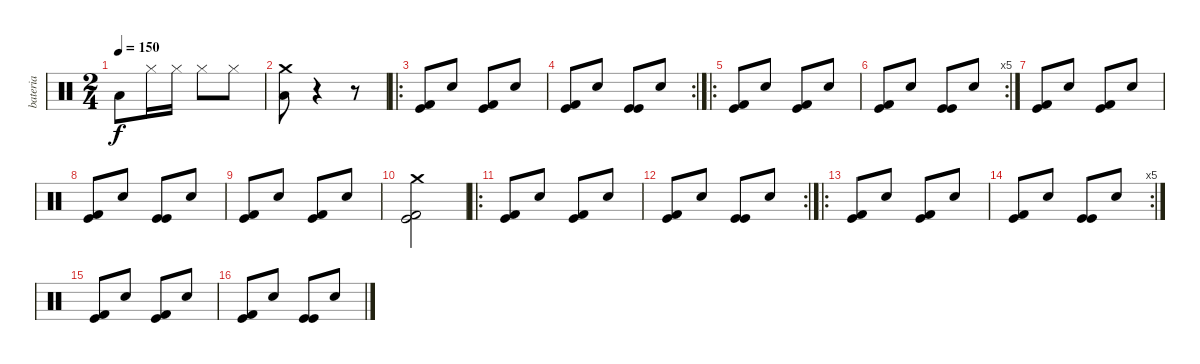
\track ("bateria" "bateria") {instrument percussion}
\staff {score}
\articulation defaults
\ts (2 4)
\tempo 150
\clef neutral
\ks c "Low Tom (hit)".8{dy f} "Hi-Hat (closed)".16 "Hi-Hat (closed)".16 "Hi-Hat (closed)".8 "Hi-Hat (closed)".8
|
("Crash medium (hit)" "Low Tom (hit)").8 r.4 r.8 |
\ro
("Kick (hit) 2" "Kick (hit)").8 "Electric Snare (hit)".8 ("Kick (hit) 2" "Kick (hit)").8 "Electric Snare (hit)".8 |
\rc 2
("Kick (hit) 2" "Kick (hit)").8 "Electric Snare (hit)".8 ("Kick (hit)" "Kick (hit)").8 "Electric Snare (hit)".8 |
\ro
("Kick (hit) 2" "Kick (hit)").8 "Electric Snare (hit)".8 ("Kick (hit) 2" "Kick (hit)").8 "Electric Snare (hit)".8 |
\rc 5
("Kick (hit) 2" "Kick (hit)").8 "Electric Snare (hit)".8 ("Kick (hit)" "Kick (hit)").8 "Electric Snare (hit)".8 |
("Kick (hit) 2" "Kick (hit)").8 "Electric Snare (hit)".8 ("Kick (hit) 2" "Kick (hit)").8 "Electric Snare (hit)".8 |
("Kick (hit) 2" "Kick (hit)").8 "Electric Snare (hit)".8 ("Kick (hit)" "Kick (hit)").8 "Electric Snare (hit)".8 |
("Kick (hit) 2" "Kick (hit)").8 "Electric Snare (hit)".8 ("Kick (hit) 2" "Kick (hit)").8 "Electric Snare (hit)".8 |
("Crash medium (hit)" "Kick (hit) 2" "Kick (hit)").2 |
\ro
("Kick (hit) 2" "Kick (hit)").8 "Electric Snare (hit)".8 ("Kick (hit) 2" "Kick (hit)").8 "Electric Snare (hit)".8 |
\rc 2
("Kick (hit) 2" "Kick (hit)").8 "Electric Snare (hit)".8 ("Kick (hit)" "Kick (hit)").8 "Electric Snare (hit)".8 |
\ro
("Kick (hit) 2" "Kick (hit)").8 "Electric Snare (hit)".8 ("Kick (hit) 2" "Kick (hit)").8 "Electric Snare (hit)".8 |
\rc 5
("Kick (hit) 2" "Kick (hit)").8 "Electric Snare (hit)".8 ("Kick (hit)" "Kick (hit)").8 "Electric Snare (hit)".8 |
("Kick (hit) 2" "Kick (hit)").8 "Electric Snare (hit)".8 ("Kick (hit) 2" "Kick (hit)").8 "Electric Snare (hit)".8 |
("Kick (hit) 2" "Kick (hit)").8 "Electric Snare (hit)".8 ("Kick (hit)" "Kick (hit)").8 "Electric Snare (hit)".8
